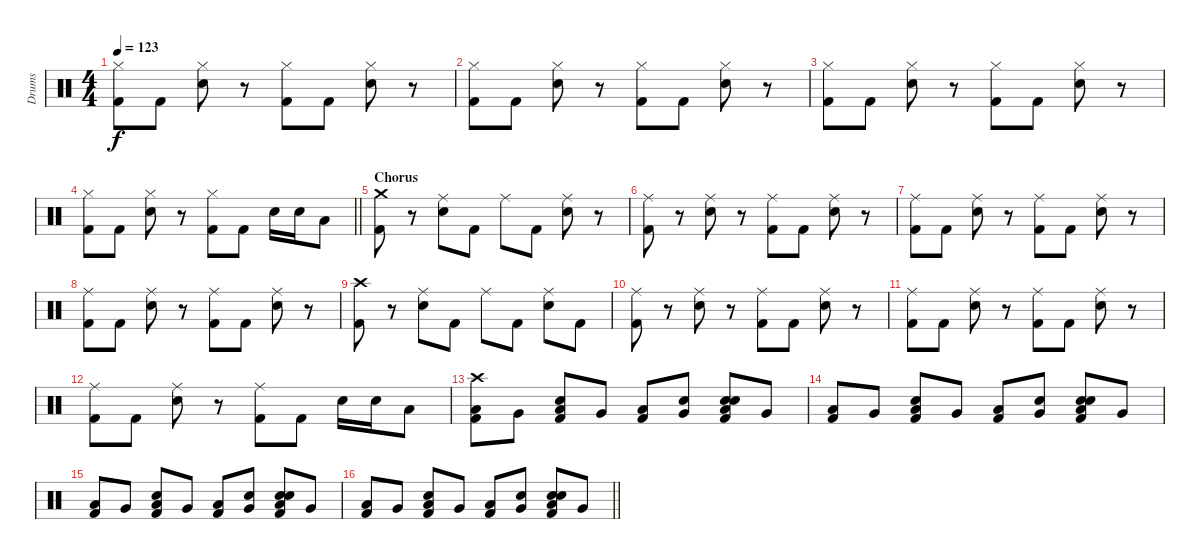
\track ("Drums" "Drums") {instrument percussion}
\staff {score}
\articulation defaults
\ts (4 4)
\tempo 123
\clef neutral
\ks c
("Hi-Hat (closed)" "Kick (hit) 2").8{dy f} "Kick (hit) 2".8 ("Hi-Hat (closed)" "Electric Snare (hit)").8 r.8 ("Hi-Hat (closed)" "Kick (hit) 2").8 "Kick (hit) 2".8 ("Hi-Hat (closed)" "Electric Snare (hit)").8 r.8 |
("Hi-Hat (closed)" "Kick (hit) 2").8 "Kick (hit) 2".8 ("Hi-Hat (closed)" "Electric Snare (hit)").8 r.8 ("Hi-Hat (closed)" "Kick (hit) 2").8 "Kick (hit) 2".8 ("Hi-Hat (closed)" "Electric Snare (hit)").8 r.8 |
("Hi-Hat (closed)" "Kick (hit) 2").8 "Kick (hit) 2".8 ("Hi-Hat (closed)" "Electric Snare (hit)").8 r.8 ("Hi-Hat (closed)" "Kick (hit) 2").8 "Kick (hit) 2".8 ("Hi-Hat (closed)" "Electric Snare (hit)").8 r.8 |
\barLineRight lightlight
("Hi-Hat (closed)" "Kick (hit) 2").8 "Kick (hit) 2".8 ("Hi-Hat (closed)" "Electric Snare (hit)").8 r.8 ("Hi-Hat (closed)" "Kick (hit) 2").8 "Kick (hit) 2".8 "Electric Snare (hit)".16 "Electric Snare (hit)".16 "Low Tom (hit)".8 |
\section ("" "Chorus")
("Crash medium (hit)" "Kick (hit) 2").8 r.8 ("Ride (middle)" "Electric Snare (hit)").8 "Kick (hit) 2".8 "Ride (middle)".8 "Kick (hit) 2".8 ("Ride (middle)" "Electric Snare (hit)").8 r.8 |
("Ride (middle)" "Kick (hit) 2").8 r.8 ("Ride (middle)" "Electric Snare (hit)").8 r.8 ("Ride (middle)" "Kick (hit) 2").8 "Kick (hit) 2".8 ("Ride (middle)" "Electric Snare (hit)").8 r.8 |
("Ride (middle)" "Kick (hit) 2").8 "Kick (hit) 2".8 ("Ride (middle)" "Electric Snare (hit)").8 r.8 ("Ride (middle)" "Kick (hit) 2").8 "Kick (hit) 2".8 ("Ride (middle)" "Electric Snare (hit)").8 r.8 |
("Ride (middle)" "Kick (hit) 2").8 "Kick (hit) 2".8 ("Ride (middle)" "Electric Snare (hit)").8 r.8 ("Ride (middle)" "Kick (hit) 2").8 "Kick (hit) 2".8 ("Ride (middle)" "Electric Snare (hit)").8 r.8 |
("Crash high (hit)" "Kick (hit) 2").8 r.8 ("Ride (middle)" "Electric Snare (hit)").8 "Kick (hit) 2".8 "Ride (middle)".8 "Kick (hit) 2".8 ("Ride (middle)" "Electric Snare (hit)").8 "Kick (hit) 2".8 |
("Ride (middle)" "Kick (hit) 2").8 r.8 ("Ride (middle)" "Electric Snare (hit)").8 r.8 ("Ride (middle)" "Kick (hit) 2").8 "Kick (hit) 2".8 ("Ride (middle)" "Electric Snare (hit)").8 r.8 |
("Ride (middle)" "Kick (hit) 2").8 "Kick (hit) 2".8 ("Ride (middle)" "Electric Snare (hit)").8 r.8 ("Ride (middle)" "Kick (hit) 2").8 "Kick (hit) 2".8 ("Ride (middle)" "Electric Snare (hit)").8 r.8 |
("Ride (middle)" "Kick (hit) 2").8 "Kick (hit) 2".8 ("Ride (middle)" "Electric Snare (hit)").8 r.8 ("Ride (middle)" "Kick (hit) 2").8 "Kick (hit) 2".8 "Electric Snare (hit)".16 "Electric Snare (hit)".16 "Low Tom (hit)".8 |
("Crash high (hit)" "Low Tom (hit)" "Kick (hit) 2").8 "Very Low Tom (hit)".8 ("Electric Snare (hit)" "Low Tom (hit)" "Kick (hit) 2").8 "Very Low Tom (hit)".8 ("Low Tom (hit)" "Kick (hit) 2").8 ("Hand Clap (hit)" "Very Low Tom (hit)").8 ("Hand Clap (hit)" "Electric Snare (hit)" "Low Tom (hit)" "Kick (hit) 2").8 "Very Low Tom (hit)".8 |
("Low Tom (hit)" "Kick (hit) 2").8 "Very Low Tom (hit)".8 ("Electric Snare (hit)" "Low Tom (hit)" "Kick (hit) 2").8 "Very Low Tom (hit)".8 ("Low Tom (hit)" "Kick (hit) 2").8 ("Hand Clap (hit)" "Very Low Tom (hit)").8 ("Hand Clap (hit)" "Electric Snare (hit)" "Low Tom (hit)" "Kick (hit) 2").8 "Very Low Tom (hit)".8 |
("Low Tom (hit)" "Kick (hit) 2").8 "Very Low Tom (hit)".8 ("Electric Snare (hit)" "Low Tom (hit)" "Kick (hit) 2").8 "Very Low Tom (hit)".8 ("Low Tom (hit)" "Kick (hit) 2").8 ("Hand Clap (hit)" "Very Low Tom (hit)").8 ("Hand Clap (hit)" "Electric Snare (hit)" "Low Tom (hit)" "Kick (hit) 2").8 "Very Low Tom (hit)".8 |
\barLineRight lightlight
("Low Tom (hit)" "Kick (hit) 2").8 "Very Low Tom (hit)".8 ("Electric Snare (hit)" "Low Tom (hit)" "Kick (hit) 2").8 "Very Low Tom (hit)".8 ("Low Tom (hit)" "Kick (hit) 2").8 ("Hand Clap (hit)" "Very Low Tom (hit)").8 ("Hand Clap (hit)" "Electric Snare (hit)" "Low Tom (hit)" "Kick (hit) 2").8 "Very Low Tom (hit)".8
